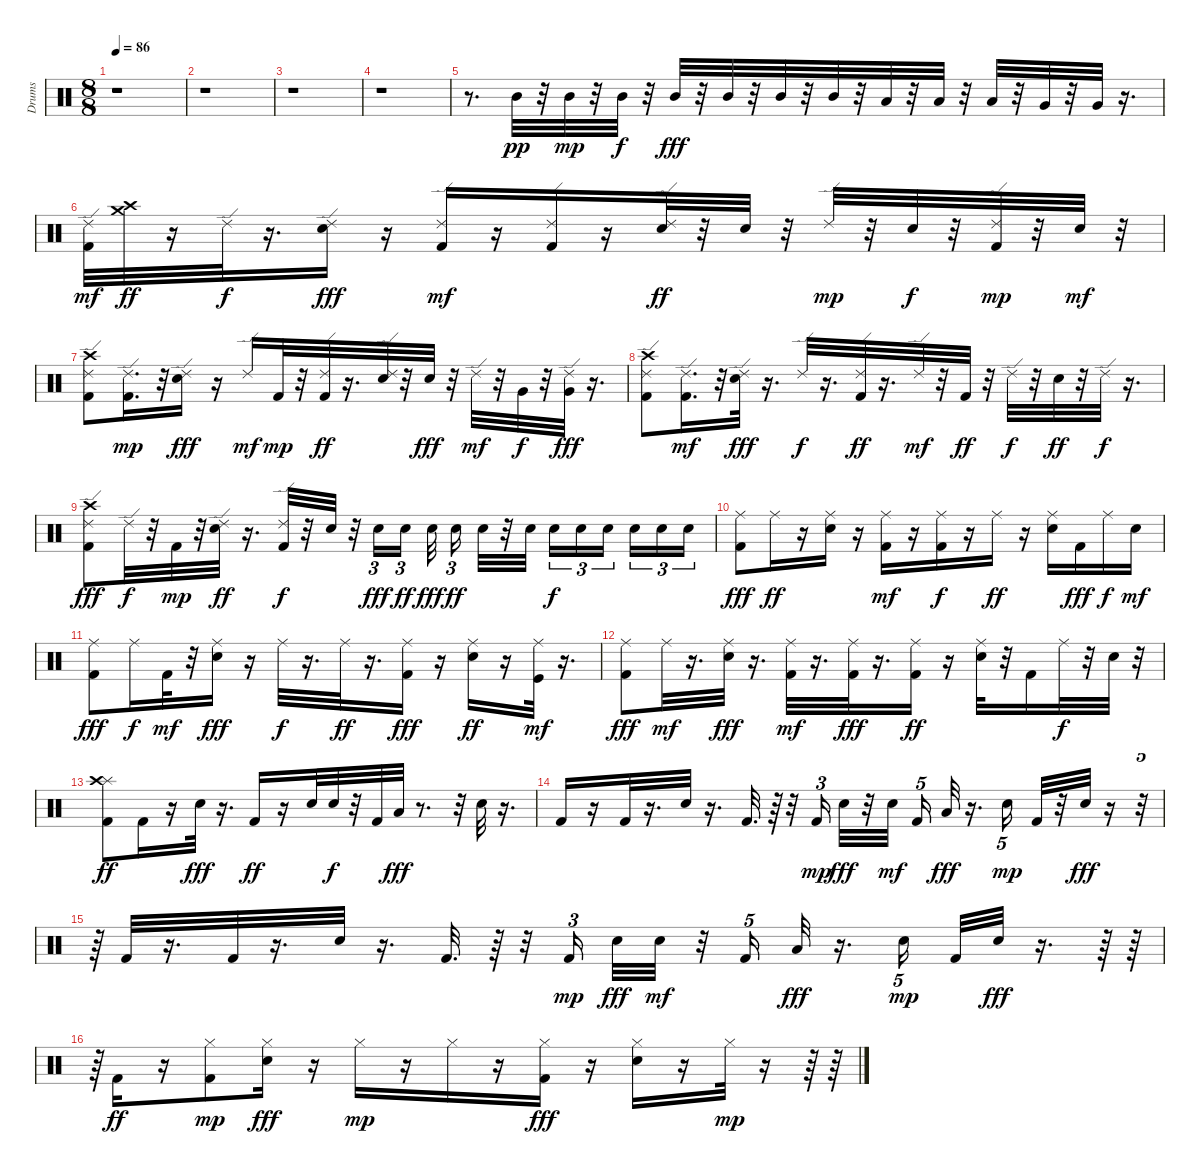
\track ("Drums" "Drums") {instrument percussion}
\staff {score}
\articulation defaults
\ts (8 8)
\tempo 86
\clef neutral
\ks c
r.1{dy fff} |
r.1 |
r.1 |
r.1 |
r.8{d} "Mid Tom (hit)".32{dy pp} r.32 "Mid Tom (hit)".32{dy mp} r.32 "Mid Tom (hit)".32{dy f} r.32 "Mid Tom (hit)".32{dy fff} r.32 "Mid Tom (hit)".32 r.32 "Mid Tom (hit)".32 r.32 "Mid Tom (hit)".32 r.32 "Low Tom (hit)".32 r.32 "Low Tom (hit)".32 r.32 "Low Tom (hit)".32 r.32 "Very Low Tom (hit)".32 r.32 "Very Low Tom (hit)".32 r.16{d} |
("Kick (hit) 2" "Ride (edge) 2").32{dy mf} ("Crash medium (hit)" "Crash high (hit)").32{dy ff} r.16 "Ride (edge) 2".32{dy f} r.16{d} ("Electric Snare (hit)" "Ride (edge) 2").16{dy fff} r.16 ("Kick (hit) 2" "Ride (edge) 2").16{dy mf} r.16 ("Kick (hit) 2" "Ride (edge) 2").16 r.16 ("Ride (edge) 2" "Electric Snare (hit)").32{dy ff} r.32 "Snare (hit) 2".32 r.32 "Ride (edge) 2".32{dy mp} r.32 "Snare (hit) 2".32{dy f} r.32 ("Ride (edge) 2" "Kick (hit) 2").32{dy mp} r.32 "Electric Snare (hit)".32{dy mf} r.32 |
("Crash high (hit)" "Kick (hit) 2" "Ride (edge) 2").8 ("Ride (edge) 2" "Kick (hit) 2").16{d dy mp} r.32 ("Ride (edge) 2" "Electric Snare (hit)").16{dy fff} r.16 "Ride (edge) 2".16{dy mf} "Kick (hit) 2".32{dy mp} r.32 ("Ride (edge) 2" "Kick (hit) 2").32{dy ff} r.16{d} ("Electric Snare (hit)" "Ride (edge) 2").32 r.32 "Electric Snare (hit)".32{dy fff} r.32 "Ride (edge) 2".32{dy mf} r.32 "Very Low Tom (hit)".32{dy f} r.32 ("Very Low Tom (hit)" "Ride (edge) 2").32{dy fff} r.16{d} |
("Crash high (hit)" "Kick (hit) 2" "Ride (edge) 2").8 ("Ride (edge) 2" "Kick (hit) 2").16{d dy mf} r.32 ("Ride (edge) 2" "Electric Snare (hit)").32{dy fff} r.16{d} "Ride (edge) 2".32{dy f} r.16{d} ("Kick (hit) 2" "Ride (edge) 2").32{dy ff} r.16{d} "Ride (edge) 2".32{dy mf} r.32 "Kick (hit) 2".32{dy ff} r.32 "Ride (edge) 2".32{dy f} r.32 "Electric Snare (hit)".32{dy ff} r.32 "Ride (edge) 2".32{dy f} r.16{d} |
("Crash high (hit)" "Ride (edge) 2" "Kick (hit) 2").8{dy fff} "Ride (edge) 2".32{dy f} r.32 "Kick (hit) 2".32{dy mp} r.32 ("Ride (edge) 2" "Electric Snare (hit)").32{dy ff} r.16{d} ("Ride (edge) 2" "Kick (hit) 2").32{dy f} r.32 "Snare (hit) 2".32 r.32 "Electric Snare (hit)".16{tu (3 2) dy fff} "Electric Snare (hit)".16{tu (3 2) dy ff} "Electric Snare (hit)".32{dy fff} "Electric Snare (hit)".16{tu (3 2) dy ff} "Electric Snare (hit)".32 r.32 "Snare (hit) 2".32 "Electric Snare (hit)".16{tu (3 2) dy f} "Electric Snare (hit)".16{tu (3 2)} "Snare (hit) 2".16{tu (3 2)} "Electric Snare (hit)".16{tu (3 2)} "Snare (hit) 2".16{tu (3 2)} "Snare (hit) 2".16{tu (3 2)} |
("Ride (middle)" "Kick (hit) 2").8{dy fff} "Ride (middle)".16{dy ff} r.16 ("Ride (middle)" "Electric Snare (hit)").16 r.16 ("Ride (middle)" "Kick (hit) 2").16{dy mf} r.16 ("Kick (hit) 2" "Ride (middle)").16{dy f} r.16 "Ride (middle)".16{dy ff} r.16 ("Electric Snare (hit)" "Ride (middle)").16 "Kick (hit) 2".16{dy fff} "Ride (middle)".16{dy f} "Electric Snare (hit)".16{dy mf} |
("Ride (middle)" "Kick (hit) 2").8{dy fff} "Ride (middle)".16{dy f} "Kick (hit) 2".32{dy mf} r.32 ("Ride (middle)" "Electric Snare (hit)").16{dy fff} r.16 "Ride (middle)".32{dy f} r.16{d} "Ride (middle)".32{dy ff} r.16{d} ("Kick (hit) 2" "Ride (middle)").16{dy fff} r.16 ("Ride (middle)" "Electric Snare (hit)").16{dy ff} r.16 ("Kick (hit)" "Ride (middle)").32{dy mf} r.16{d} |
("Ride (middle)" "Kick (hit) 2").8{dy fff} "Ride (middle)".32{dy mf} r.16{d} ("Electric Snare (hit)" "Ride (middle)").32{dy fff} r.16{d} ("Kick (hit) 2" "Ride (middle)").32{dy mf} r.16{d} ("Kick (hit) 2" "Ride (middle)").32{dy fff} r.16{d} ("Kick (hit) 2" "Ride (middle)").16{dy ff} r.16 ("Electric Snare (hit)" "Ride (middle)").32 r.32 "Kick (hit) 2".16 "Ride (middle)".32{dy f} r.32 "Electric Snare (hit)".32 r.32 |
("Kick (hit) 2" "Splash (hit)" "Crash high (hit)").8{dy ff} "Kick (hit) 2".16 r.16 "Electric Snare (hit)".32{dy fff} r.16{d} "Kick (hit) 2".16{dy ff} r.16 "Electric Snare (hit)".32 "Electric Snare (hit)".32{dy f} r.32 "Kick (hit) 2".32 "Low Tom (hit)".32{dy fff} r.8{d} r.32 "Electric Snare (hit)".32 r.16{d} |
"Kick (hit) 2".16 r.16 "Kick (hit) 2".32 r.16{d} "Electric Snare (hit)".32 r.16{d} "Kick (hit) 2".32{d} r.64 r.32 "Kick (hit) 2".16{tu (3 2) dy mp} "Electric Snare (hit)".32{dy fff} r.32 "Snare (hit) 2".32{dy mf} "Kick (hit) 2".16{tu (5 4)} "Low Tom (hit)".32{dy fff} r.16{d} "Snare (hit) 2".16{tu (5 4) dy mp} "Kick (hit) 2".32 r.32 "Electric Snare (hit)".32{dy fff} r.16 r.32{tu (5 4)} |
r.64 "Kick (hit) 2".32 r.16{d} "Kick (hit) 2".32 r.16{d} "Electric Snare (hit)".32 r.16{d} "Kick (hit) 2".32{d} r.64 r.32 "Kick (hit) 2".16{tu (3 2) dy mp} "Electric Snare (hit)".32{dy fff} "Snare (hit) 2".32{dy mf} r.32 "Kick (hit) 2".16{tu (5 4)} "Low Tom (hit)".32{dy fff} r.16{d} "Snare (hit) 2".16{tu (5 4) dy mp} "Kick (hit) 2".32 "Electric Snare (hit)".32{dy fff} r.16{d} r.64 r.64 |
r.64{tu (5 4)} "Kick (hit) 2".16{dy ff} r.16 ("Kick (hit) 2" "Hi-Hat (closed)").8{dy mp} ("Hi-Hat (closed)" "Electric Snare (hit)").16{dy fff} r.16 "Hi-Hat (closed)".16{dy mp} r.16 "Hi-Hat (closed)".16 r.16 ("Kick (hit) 2" "Hi-Hat (closed)").16{dy fff} r.16 ("Hi-Hat (closed)" "Electric Snare (hit)").16 r.16 "Hi-Hat (closed)".32{dy mp} r.16 r.64 r.64
